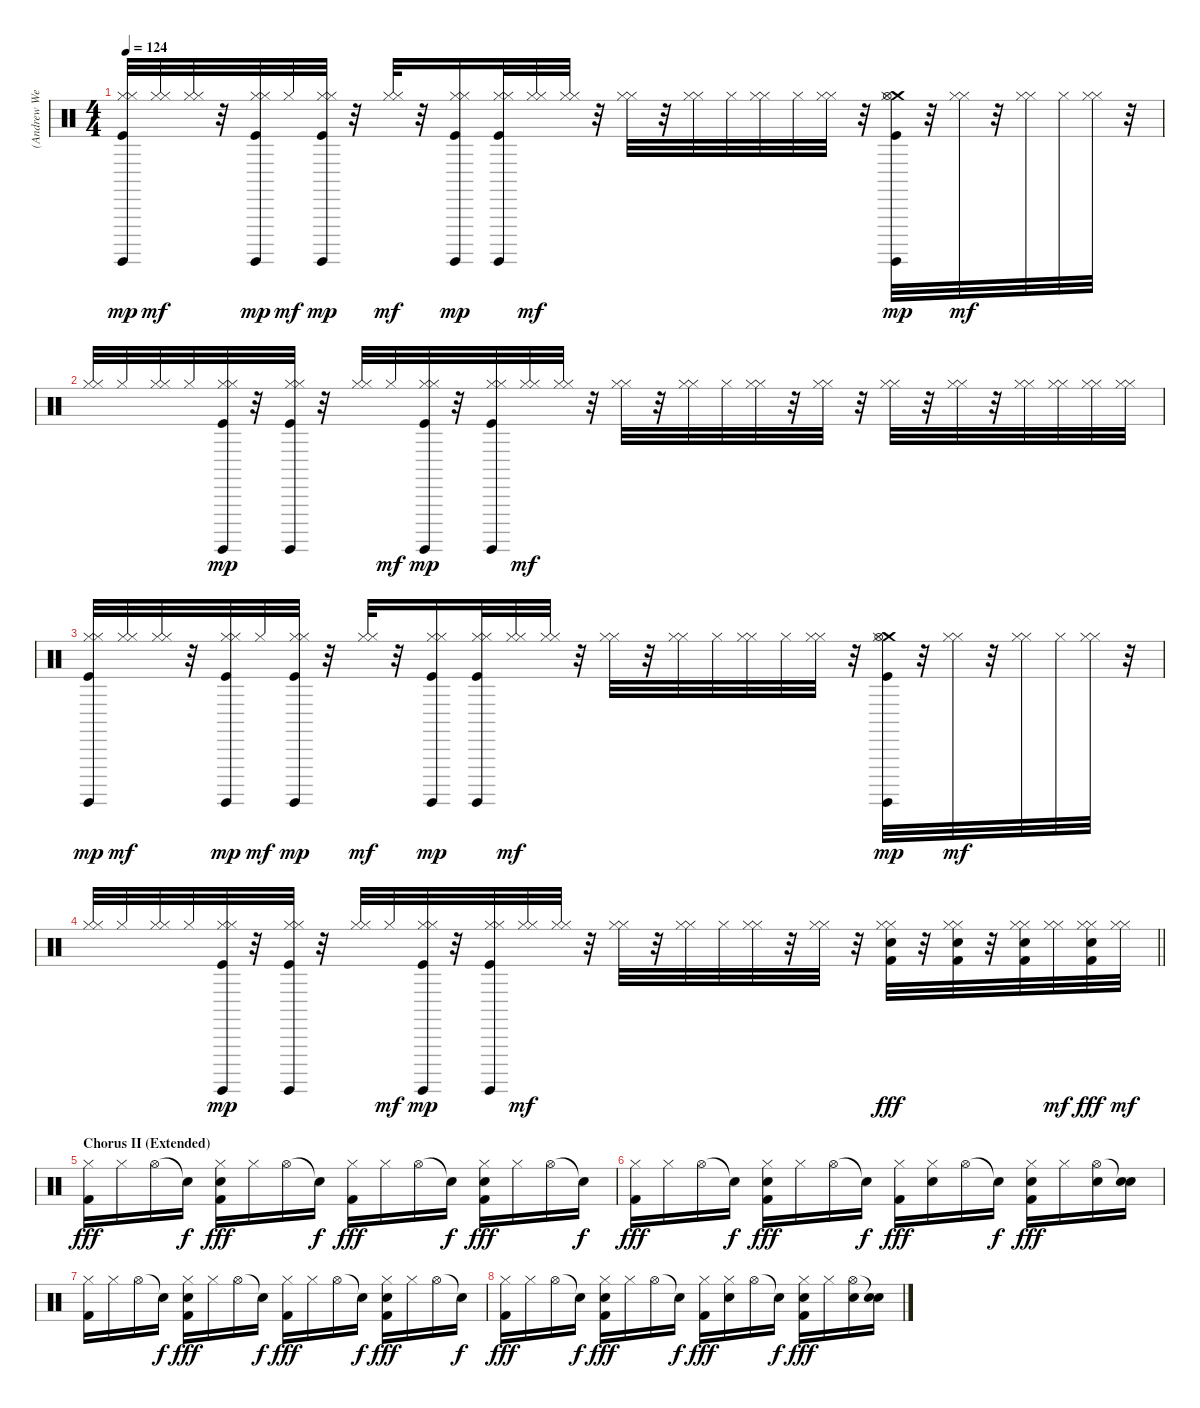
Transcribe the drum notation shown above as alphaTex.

\track ("(Andrew Wetzel) Drums" "(Andrew We") {instrument percussion}
\staff {score}
\articulation defaults
\ts (4 4)
\tempo 124
\clef neutral
\ks c
("Hi-Hat (closed)" "Hi-Hat (closed)" "Kick (hit)" "Surdo (hit)").32{dy mp} ("Hi-Hat (closed)" "Hi-Hat (closed)").32{dy mf} ("Hi-Hat (closed)" "Hi-Hat (closed)").32{volume 13} r.32 ("Hi-Hat (closed)" "Hi-Hat (closed)" "Kick (hit)" "Surdo (hit)").32{dy mp} "Hi-Hat (closed)".32{dy mf} ("Hi-Hat (closed)" "Hi-Hat (closed)" "Kick (hit)" "Surdo (hit)").32{dy mp} r.32 ("Hi-Hat (closed)" "Hi-Hat (closed)").32{dy mf} r.32 ("Hi-Hat (closed)" "Hi-Hat (closed)" "Kick (hit)" "Surdo (hit)").16{dy mp} ("Hi-Hat (closed)" "Hi-Hat (closed)" "Kick (hit)" "Surdo (hit)").32 ("Hi-Hat (closed)" "Hi-Hat (closed)").32{dy mf} ("Hi-Hat (closed)" "Hi-Hat (closed)").32 r.32 ("Hi-Hat (closed)" "Hi-Hat (closed)").32 r.32 ("Hi-Hat (closed)" "Hi-Hat (closed)").32 "Hi-Hat (closed)".32 ("Hi-Hat (closed)" "Hi-Hat (closed)").32 "Hi-Hat (closed)".32 ("Hi-Hat (closed)" "Hi-Hat (closed)").32 r.32 ("Crash medium (hit)" "Hi-Hat (open)" "Hi-Hat (closed)" "Kick (hit)" "Surdo (hit)").32{dy mp} r.32 ("Hi-Hat (closed)" "Hi-Hat (closed)").32{dy mf} r.32 ("Hi-Hat (closed)" "Hi-Hat (closed)").32 "Hi-Hat (closed)".32 ("Hi-Hat (closed)" "Hi-Hat (closed)").32 r.32 |
("Hi-Hat (closed)" "Hi-Hat (closed)").32 "Hi-Hat (closed)".32 ("Hi-Hat (closed)" "Hi-Hat (closed)").32 "Hi-Hat (closed)".32 ("Hi-Hat (closed)" "Hi-Hat (closed)" "Kick (hit)" "Surdo (hit)").32{dy mp} r.32 ("Hi-Hat (closed)" "Hi-Hat (closed)" "Kick (hit)" "Surdo (hit)").32 r.32 ("Hi-Hat (closed)" "Hi-Hat (closed)").32 "Hi-Hat (closed)".32{dy mf} ("Hi-Hat (closed)" "Hi-Hat (closed)" "Kick (hit)" "Surdo (hit)").32{dy mp} r.32 ("Hi-Hat (closed)" "Hi-Hat (closed)" "Kick (hit)" "Surdo (hit)").32 ("Hi-Hat (closed)" "Hi-Hat (closed)").32{dy mf} ("Hi-Hat (closed)" "Hi-Hat (closed)").32 r.32 ("Hi-Hat (closed)" "Hi-Hat (closed)").32 r.32 ("Hi-Hat (closed)" "Hi-Hat (closed)").32 "Hi-Hat (closed)".32 ("Hi-Hat (closed)" "Hi-Hat (closed)").32 r.32 ("Hi-Hat (closed)" "Hi-Hat (closed)").32 r.32 ("Hi-Hat (closed)" "Hi-Hat (closed)").32 r.32 ("Hi-Hat (closed)" "Hi-Hat (closed)").32 r.32 ("Hi-Hat (closed)" "Hi-Hat (closed)").32 ("Hi-Hat (closed)" "Hi-Hat (closed)").32 ("Hi-Hat (closed)" "Hi-Hat (closed)").32 ("Hi-Hat (closed)" "Hi-Hat (closed)").32 |
("Hi-Hat (closed)" "Hi-Hat (closed)" "Kick (hit)" "Surdo (hit)").32{dy mp} ("Hi-Hat (closed)" "Hi-Hat (closed)").32{dy mf} ("Hi-Hat (closed)" "Hi-Hat (closed)").32 r.32 ("Hi-Hat (closed)" "Hi-Hat (closed)" "Kick (hit)" "Surdo (hit)").32{dy mp} "Hi-Hat (closed)".32{dy mf} ("Hi-Hat (closed)" "Hi-Hat (closed)" "Kick (hit)" "Surdo (hit)").32{dy mp} r.32 ("Hi-Hat (closed)" "Hi-Hat (closed)").32{dy mf} r.32 ("Hi-Hat (closed)" "Hi-Hat (closed)" "Kick (hit)" "Surdo (hit)").16{dy mp} ("Hi-Hat (closed)" "Hi-Hat (closed)" "Kick (hit)" "Surdo (hit)").32 ("Hi-Hat (closed)" "Hi-Hat (closed)").32{dy mf} ("Hi-Hat (closed)" "Hi-Hat (closed)").32 r.32 ("Hi-Hat (closed)" "Hi-Hat (closed)").32 r.32 ("Hi-Hat (closed)" "Hi-Hat (closed)").32 "Hi-Hat (closed)".32 ("Hi-Hat (closed)" "Hi-Hat (closed)").32 "Hi-Hat (closed)".32 ("Hi-Hat (closed)" "Hi-Hat (closed)").32 r.32 ("Crash medium (hit)" "Hi-Hat (open)" "Hi-Hat (closed)" "Kick (hit)" "Surdo (hit)").32{dy mp} r.32 ("Hi-Hat (closed)" "Hi-Hat (closed)").32{dy mf} r.32 ("Hi-Hat (closed)" "Hi-Hat (closed)").32 "Hi-Hat (closed)".32 ("Hi-Hat (closed)" "Hi-Hat (closed)").32 r.32 |
\barLineRight lightlight
("Hi-Hat (closed)" "Hi-Hat (closed)").32 "Hi-Hat (closed)".32 ("Hi-Hat (closed)" "Hi-Hat (closed)").32 "Hi-Hat (closed)".32 ("Hi-Hat (closed)" "Hi-Hat (closed)" "Kick (hit)" "Surdo (hit)").32{dy mp} r.32 ("Hi-Hat (closed)" "Hi-Hat (closed)" "Kick (hit)" "Surdo (hit)").32 r.32 ("Hi-Hat (closed)" "Hi-Hat (closed)").32 "Hi-Hat (closed)".32{dy mf} ("Hi-Hat (closed)" "Hi-Hat (closed)" "Kick (hit)" "Surdo (hit)").32{dy mp} r.32 ("Hi-Hat (closed)" "Hi-Hat (closed)" "Kick (hit)" "Surdo (hit)").32 ("Hi-Hat (closed)" "Hi-Hat (closed)").32{dy mf} ("Hi-Hat (closed)" "Hi-Hat (closed)").32 r.32 ("Hi-Hat (closed)" "Hi-Hat (closed)").32 r.32 ("Hi-Hat (closed)" "Hi-Hat (closed)").32 "Hi-Hat (closed)".32 ("Hi-Hat (closed)" "Hi-Hat (closed)").32 r.32 ("Hi-Hat (closed)" "Hi-Hat (closed)").32 r.32 ("Hi-Hat (closed)" "Hi-Hat (closed)" "Electric Snare (hit)" "Kick (hit) 2").32{dy fff} r.32 ("Hi-Hat (closed)" "Hi-Hat (closed)" "Electric Snare (hit)" "Kick (hit) 2").32 r.32 ("Hi-Hat (closed)" "Hi-Hat (closed)" "Electric Snare (hit)" "Kick (hit) 2").32 ("Hi-Hat (closed)" "Hi-Hat (closed)").32{dy mf} ("Hi-Hat (closed)" "Hi-Hat (closed)" "Electric Snare (hit)" "Kick (hit) 2").32{dy fff} ("Hi-Hat (closed)" "Hi-Hat (closed)").32{dy mf} |
\section ("" "Chorus II (Extended)")
("Hi-Hat (closed)" "Kick (hit) 2").16{dy fff} "Hi-Hat (closed)".16 "Hi-Hat (open)".16 "Snare (hit)"{t}.16{dy f} ("Hi-Hat (closed)" "Electric Snare (hit)" "Kick (hit) 2").16{dy fff} "Hi-Hat (closed)".16 "Hi-Hat (open)".16 "Snare (hit)"{t}.16{dy f} ("Hi-Hat (closed)" "Kick (hit) 2").16{dy fff} "Hi-Hat (closed)".16 "Hi-Hat (open)".16 "Snare (hit)"{t}.16{dy f} ("Hi-Hat (closed)" "Electric Snare (hit)" "Kick (hit) 2").16{dy fff} "Hi-Hat (closed)".16 "Hi-Hat (open)".16 "Snare (hit)"{t}.16{dy f} |
("Hi-Hat (closed)" "Kick (hit) 2").16{dy fff} "Hi-Hat (closed)".16 "Hi-Hat (open)".16 "Snare (hit)"{t}.16{dy f} ("Hi-Hat (closed)" "Electric Snare (hit)" "Kick (hit) 2").16{dy fff} "Hi-Hat (closed)".16 "Hi-Hat (open)".16 "Snare (hit)"{t}.16{dy f} ("Hi-Hat (closed)" "Kick (hit) 2").16{dy fff} ("Hi-Hat (closed)" "Electric Snare (hit)").16 "Hi-Hat (open)".16 "Snare (hit)"{t}.16{dy f} ("Hi-Hat (closed)" "Electric Snare (hit)" "Kick (hit) 2").16{dy fff} "Hi-Hat (closed)".16 ("Hi-Hat (open)" "Electric Snare (hit)").16 ("Snare (hit)"{t} "Electric Snare (hit)").16 |
("Hi-Hat (closed)" "Kick (hit) 2").16 "Hi-Hat (closed)".16 "Hi-Hat (open)".16 "Snare (hit)"{t}.16{dy f} ("Hi-Hat (closed)" "Electric Snare (hit)" "Kick (hit) 2").16{dy fff} "Hi-Hat (closed)".16 "Hi-Hat (open)".16 "Snare (hit)"{t}.16{dy f} ("Hi-Hat (closed)" "Kick (hit) 2").16{dy fff} "Hi-Hat (closed)".16 "Hi-Hat (open)".16 "Snare (hit)"{t}.16{dy f} ("Hi-Hat (closed)" "Electric Snare (hit)" "Kick (hit) 2").16{dy fff} "Hi-Hat (closed)".16 "Hi-Hat (open)".16 "Snare (hit)"{t}.16{dy f} |
("Hi-Hat (closed)" "Kick (hit) 2").16{dy fff} "Hi-Hat (closed)".16 "Hi-Hat (open)".16 "Snare (hit)"{t}.16{dy f} ("Hi-Hat (closed)" "Electric Snare (hit)" "Kick (hit) 2").16{dy fff} "Hi-Hat (closed)".16 "Hi-Hat (open)".16 "Snare (hit)"{t}.16{dy f} ("Hi-Hat (closed)" "Kick (hit) 2").16{dy fff} ("Hi-Hat (closed)" "Electric Snare (hit)").16 "Hi-Hat (open)".16 "Snare (hit)"{t}.16{dy f} ("Hi-Hat (closed)" "Electric Snare (hit)" "Kick (hit) 2").16{dy fff} "Hi-Hat (closed)".16 ("Hi-Hat (open)" "Electric Snare (hit)").16 ("Snare (hit)"{t} "Electric Snare (hit)").16
